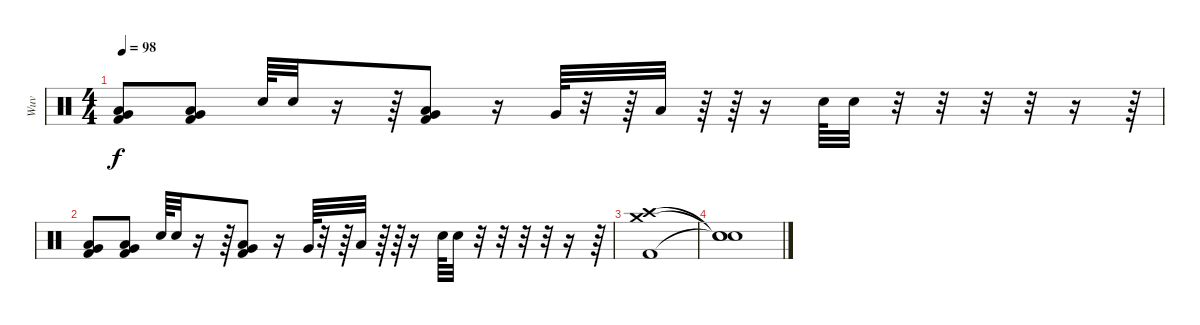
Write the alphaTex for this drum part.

\track ("Wuv" "Wuv") {instrument percussion}
\staff {score}
\articulation defaults
\ts (4 4)
\tempo 98
\clef neutral
\ks c
("Very Low Tom (hit)" "Low Tom (hit)" "Kick (hit) 2").8{dy f} ("Very Low Tom (hit)" "Low Tom (hit)" "Kick (hit) 2").8 "Electric Snare (hit)".64 "Electric Snare (hit)".32 r.16 r.64 ("Very Low Tom (hit)" "Low Tom (hit)" "Kick (hit) 2").8 r.16 "Very Low Tom (hit)".64 r.32 r.64 "Low Tom (hit)".32 r.64 r.64 r.16 "Electric Snare (hit)".64 "Electric Snare (hit)".32 r.32 r.32 r.32 r.32 r.16 r.64 |
("Very Low Tom (hit)" "Low Tom (hit)" "Kick (hit) 2").8 ("Very Low Tom (hit)" "Low Tom (hit)" "Kick (hit) 2").8 "Electric Snare (hit)".64 "Electric Snare (hit)".32 r.16 r.64 ("Very Low Tom (hit)" "Low Tom (hit)" "Kick (hit) 2").8 r.16 "Very Low Tom (hit)".64 r.32 r.64 "Low Tom (hit)".32 r.64 r.64 r.16 "Electric Snare (hit)".64 "Electric Snare (hit)".32 r.32 r.32 r.32 r.32 r.16 r.64 |
("Crash high (hit)" "Crash medium (hit)" "Kick (hit) 2").1 |
("Snare (hit)"{t} "Snare (hit)"{t} "Snare (hit)"{t}).1{volume 0}
